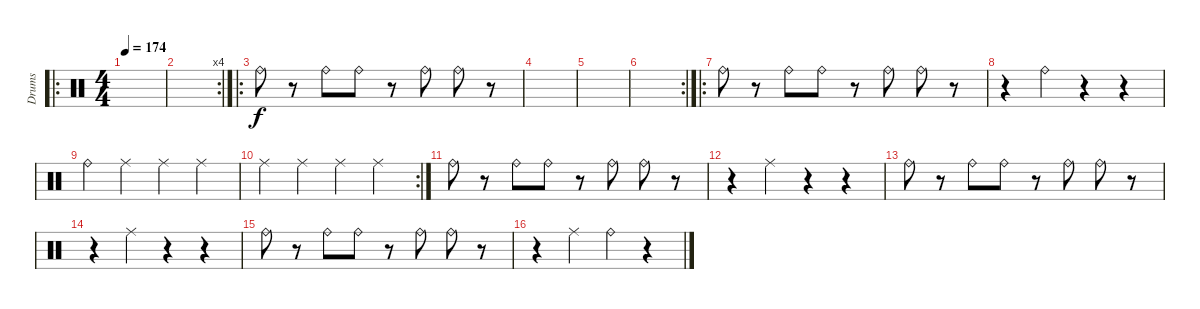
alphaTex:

\track ("Drums" "Drums") {instrument percussion}
\staff {score}
\articulation defaults
\ro
\ts (4 4)
\tempo 174
\clef neutral
\ks c
|
\rc 4
|
\ro "Ride (bell)".8{volume 10}
r.8 "Ride (bell)".8 "Ride (bell)".8 r.8 "Ride (bell)".8 "Ride (bell)".8 r.8 |
|
|
\rc 2
|
\ro "Ride (bell)".8
r.8 "Ride (bell)".8 "Ride (bell)".8 r.8 "Ride (bell)".8 "Ride (bell)".8 r.8 |
r.4 "Ride (bell)".4 r.4 r.4 |
"Ride (bell)".4 "Ride (middle)".4 "Ride (middle)".4 "Ride (middle)".4 |
\rc 2 "Ride (middle)".4 "Ride (middle)".4 "Ride (middle)".4 "Ride (middle)".4
|
"Ride (bell)".8 r.8 "Ride (bell)".8 "Ride (bell)".8 r.8 "Ride (bell)".8 "Ride (bell)".8 r.8 |
r.4 "Ride (middle)".4 r.4 r.4 |
"Ride (bell)".8 r.8 "Ride (bell)".8 "Ride (bell)".8 r.8 "Ride (bell)".8 "Ride (bell)".8 r.8 |
r.4 "Ride (middle)".4 r.4 r.4 |
"Ride (bell)".8 r.8 "Ride (bell)".8 "Ride (bell)".8 r.8 "Ride (bell)".8 "Ride (bell)".8 r.8 |
r.4 "Ride (middle)".4 "Ride (bell)".4 r.4
